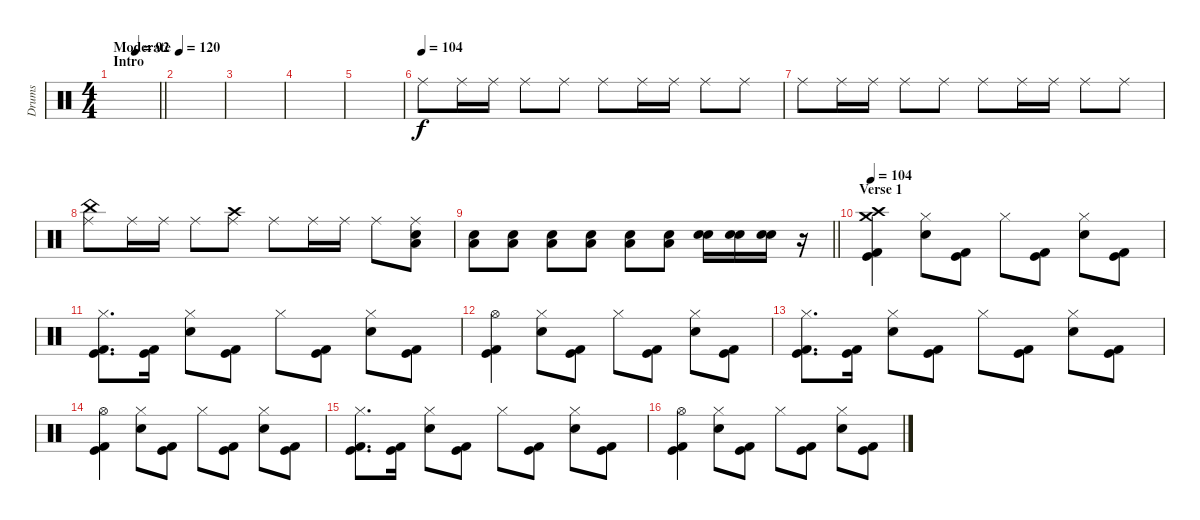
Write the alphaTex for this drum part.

\track ("Drums" "Drums") {instrument percussion}
\staff {score}
\articulation defaults
\ts (4 4)
\section ("" "Intro")
\tempo (120 "Moderate")
\tempo (92 0.5)
\tempo (120 "Moderate")
\clef neutral
\barLineRight lightlight
\ks c
|
|
|
|
|
\tempo (104)
"Ride (middle)".8{volume 5} "Ride (middle)".16 "Ride (middle)".16 "Ride (middle)".8 "Ride (middle)".8 "Ride (middle)".8 "Ride (middle)".16 "Ride (middle)".16 "Ride (middle)".8 "Ride (middle)".8 |
"Ride (middle)".8 "Ride (middle)".16 "Ride (middle)".16 "Ride (middle)".8 "Ride (middle)".8 "Ride (middle)".8 "Ride (middle)".16 "Ride (middle)".16 "Ride (middle)".8 "Ride (middle)".8 |
("Ride (middle)" "China (hit)").8 "Ride (middle)".16 "Ride (middle)".16 "Ride (middle)".8 ("Ride (middle)" "Crash high (hit)").8 "Ride (middle)".8 "Ride (middle)".16 "Ride (middle)".16 "Ride (middle)".8 ("Ride (middle)" "Low Tom (hit)" "Electric Snare (hit)").8{volume 10} |
\barLineRight lightlight
("Low Tom (hit)" "Electric Snare (hit)").8 ("Low Tom (hit)" "Electric Snare (hit)").8 ("Low Tom (hit)" "Electric Snare (hit)").8{volume 12} ("Low Tom (hit)" "Electric Snare (hit)").8 ("Low Tom (hit)" "Electric Snare (hit)").8 ("Low Tom (hit)" "Electric Snare (hit)").8{volume 14} ("Electric Snare (hit)" "Electric Snare (hit)").16 ("Electric Snare (hit)" "Electric Snare (hit)").16 ("Electric Snare (hit)" "Electric Snare (hit)").16{volume 16} r.16 |
\section ("" "Verse 1")
\tempo 104
("Crash medium (hit)" "Crash high (hit)" "Kick (hit)" "Kick (hit) 2").4 ("Hi-Hat (closed)" "Electric Snare (hit)").8 ("Kick (hit)" "Kick (hit) 2").8 "Hi-Hat (closed)".8 ("Kick (hit)" "Kick (hit) 2").8 ("Hi-Hat (closed)" "Electric Snare (hit)").8 ("Kick (hit)" "Kick (hit) 2").8 |
("Hi-Hat (closed)" "Kick (hit)" "Kick (hit) 2").8{d} ("Kick (hit)" "Kick (hit) 2").16 ("Hi-Hat (closed)" "Electric Snare (hit)").8 ("Kick (hit)" "Kick (hit) 2").8 "Hi-Hat (closed)".8 ("Kick (hit)" "Kick (hit) 2").8 ("Hi-Hat (closed)" "Electric Snare (hit)").8 ("Kick (hit)" "Kick (hit) 2").8 |
("Hi-Hat (open)" "Kick (hit)" "Kick (hit) 2").4 ("Hi-Hat (closed)" "Electric Snare (hit)").8 ("Kick (hit)" "Kick (hit) 2").8 "Hi-Hat (closed)".8 ("Kick (hit)" "Kick (hit) 2").8 ("Hi-Hat (closed)" "Electric Snare (hit)").8 ("Kick (hit)" "Kick (hit) 2").8 |
("Hi-Hat (closed)" "Kick (hit)" "Kick (hit) 2").8{d} ("Kick (hit)" "Kick (hit) 2").16 ("Hi-Hat (closed)" "Electric Snare (hit)").8 ("Kick (hit)" "Kick (hit) 2").8 "Hi-Hat (closed)".8 ("Kick (hit)" "Kick (hit) 2").8 ("Hi-Hat (closed)" "Electric Snare (hit)").8 ("Kick (hit)" "Kick (hit) 2").8 |
("Hi-Hat (open)" "Kick (hit)" "Kick (hit) 2").4 ("Hi-Hat (closed)" "Electric Snare (hit)").8 ("Kick (hit)" "Kick (hit) 2").8 "Hi-Hat (closed)".8 ("Kick (hit)" "Kick (hit) 2").8 ("Hi-Hat (closed)" "Electric Snare (hit)").8 ("Kick (hit)" "Kick (hit) 2").8 |
("Hi-Hat (closed)" "Kick (hit)" "Kick (hit) 2").8{d} ("Kick (hit)" "Kick (hit) 2").16 ("Hi-Hat (closed)" "Electric Snare (hit)").8 ("Kick (hit)" "Kick (hit) 2").8 "Hi-Hat (closed)".8 ("Kick (hit)" "Kick (hit) 2").8 ("Hi-Hat (closed)" "Electric Snare (hit)").8 ("Kick (hit)" "Kick (hit) 2").8 |
("Hi-Hat (open)" "Kick (hit)" "Kick (hit) 2").4 ("Hi-Hat (closed)" "Electric Snare (hit)").8 ("Kick (hit)" "Kick (hit) 2").8 "Hi-Hat (closed)".8 ("Kick (hit)" "Kick (hit) 2").8 ("Hi-Hat (closed)" "Electric Snare (hit)").8 ("Kick (hit)" "Kick (hit) 2").8
